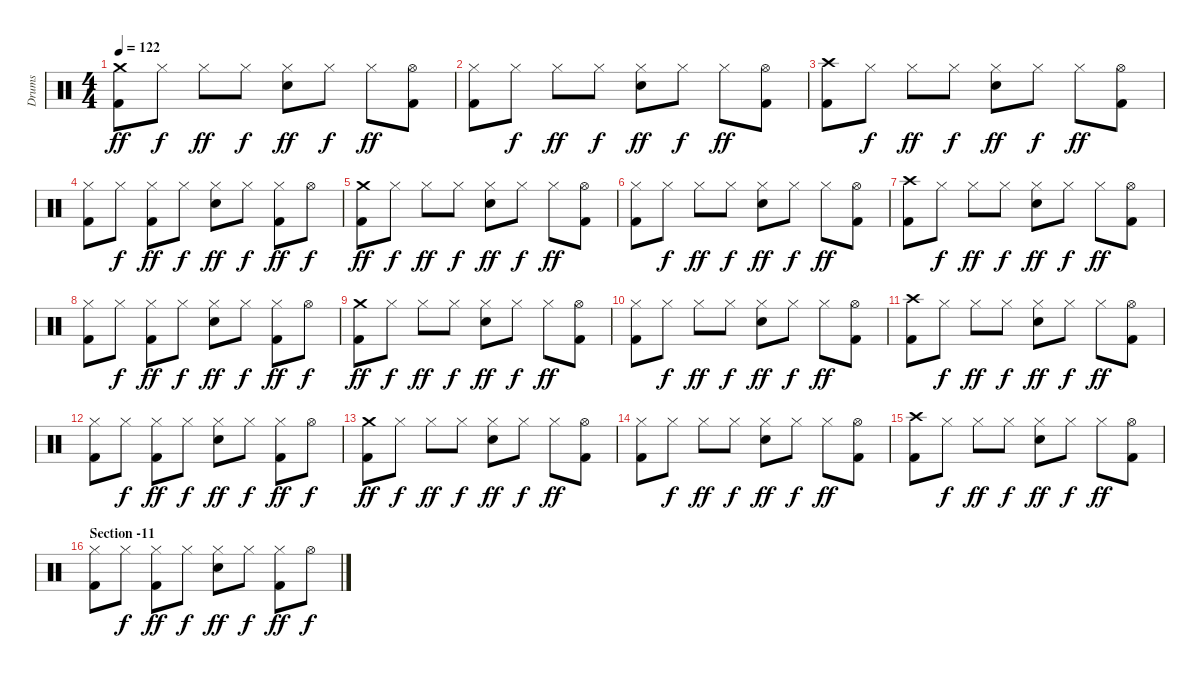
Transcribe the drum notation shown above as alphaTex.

\track ("Drums" "Drums") {instrument percussion}
\staff {score}
\articulation defaults
\ts (4 4)
\tempo 122
\clef neutral
\ks c
("Crash medium (hit)" "Kick (hit) 2").8{dy ff} "Hi-Hat (closed)".8{dy f} "Hi-Hat (closed)".8{dy ff} "Hi-Hat (closed)".8{dy f} ("Hi-Hat (closed)" "Snare (hit) 2").8{dy ff} "Hi-Hat (closed)".8{dy f} "Hi-Hat (closed)".8{dy ff} ("Hi-Hat (open)" "Kick (hit) 2").8 |
("Hi-Hat (closed)" "Kick (hit) 2").8 "Hi-Hat (closed)".8{dy f} "Hi-Hat (closed)".8{dy ff} "Hi-Hat (closed)".8{dy f} ("Hi-Hat (closed)" "Snare (hit) 2").8{dy ff} "Hi-Hat (closed)".8{dy f} "Hi-Hat (closed)".8{dy ff} ("Hi-Hat (open)" "Kick (hit) 2").8 |
("Crash high (hit)" "Kick (hit) 2").8 "Hi-Hat (closed)".8{dy f} "Hi-Hat (closed)".8{dy ff} "Hi-Hat (closed)".8{dy f} ("Hi-Hat (closed)" "Snare (hit) 2").8{dy ff} "Hi-Hat (closed)".8{dy f} "Hi-Hat (closed)".8{dy ff} ("Hi-Hat (open)" "Kick (hit) 2").8 |
("Hi-Hat (closed)" "Kick (hit) 2").8 "Hi-Hat (closed)".8{dy f} ("Hi-Hat (closed)" "Kick (hit) 2").8{dy ff} "Hi-Hat (closed)".8{dy f} ("Hi-Hat (closed)" "Snare (hit) 2").8{dy ff} "Hi-Hat (closed)".8{dy f} ("Hi-Hat (closed)" "Kick (hit) 2").8{dy ff} "Hi-Hat (open)".8{dy f} |
("Crash medium (hit)" "Kick (hit) 2").8{dy ff} "Hi-Hat (closed)".8{dy f} "Hi-Hat (closed)".8{dy ff} "Hi-Hat (closed)".8{dy f} ("Hi-Hat (closed)" "Snare (hit) 2").8{dy ff} "Hi-Hat (closed)".8{dy f} "Hi-Hat (closed)".8{dy ff} ("Hi-Hat (open)" "Kick (hit) 2").8 |
("Hi-Hat (closed)" "Kick (hit) 2").8 "Hi-Hat (closed)".8{dy f} "Hi-Hat (closed)".8{dy ff} "Hi-Hat (closed)".8{dy f} ("Hi-Hat (closed)" "Snare (hit) 2").8{dy ff} "Hi-Hat (closed)".8{dy f} "Hi-Hat (closed)".8{dy ff} ("Hi-Hat (open)" "Kick (hit) 2").8 |
("Crash high (hit)" "Kick (hit) 2").8 "Hi-Hat (closed)".8{dy f} "Hi-Hat (closed)".8{dy ff} "Hi-Hat (closed)".8{dy f} ("Hi-Hat (closed)" "Snare (hit) 2").8{dy ff} "Hi-Hat (closed)".8{dy f} "Hi-Hat (closed)".8{dy ff} ("Hi-Hat (open)" "Kick (hit) 2").8 |
("Hi-Hat (closed)" "Kick (hit) 2").8 "Hi-Hat (closed)".8{dy f} ("Hi-Hat (closed)" "Kick (hit) 2").8{dy ff} "Hi-Hat (closed)".8{dy f} ("Hi-Hat (closed)" "Snare (hit) 2").8{dy ff} "Hi-Hat (closed)".8{dy f} ("Hi-Hat (closed)" "Kick (hit) 2").8{dy ff} "Hi-Hat (open)".8{dy f} |
("Crash medium (hit)" "Kick (hit) 2").8{dy ff} "Hi-Hat (closed)".8{dy f} "Hi-Hat (closed)".8{dy ff} "Hi-Hat (closed)".8{dy f} ("Hi-Hat (closed)" "Snare (hit) 2").8{dy ff} "Hi-Hat (closed)".8{dy f} "Hi-Hat (closed)".8{dy ff} ("Hi-Hat (open)" "Kick (hit) 2").8 |
("Hi-Hat (closed)" "Kick (hit) 2").8 "Hi-Hat (closed)".8{dy f} "Hi-Hat (closed)".8{dy ff} "Hi-Hat (closed)".8{dy f} ("Hi-Hat (closed)" "Snare (hit) 2").8{dy ff} "Hi-Hat (closed)".8{dy f} "Hi-Hat (closed)".8{dy ff} ("Hi-Hat (open)" "Kick (hit) 2").8 |
("Crash high (hit)" "Kick (hit) 2").8 "Hi-Hat (closed)".8{dy f} "Hi-Hat (closed)".8{dy ff} "Hi-Hat (closed)".8{dy f} ("Hi-Hat (closed)" "Snare (hit) 2").8{dy ff} "Hi-Hat (closed)".8{dy f} "Hi-Hat (closed)".8{dy ff} ("Hi-Hat (open)" "Kick (hit) 2").8 |
("Hi-Hat (closed)" "Kick (hit) 2").8 "Hi-Hat (closed)".8{dy f} ("Hi-Hat (closed)" "Kick (hit) 2").8{dy ff} "Hi-Hat (closed)".8{dy f} ("Hi-Hat (closed)" "Snare (hit) 2").8{dy ff} "Hi-Hat (closed)".8{dy f} ("Hi-Hat (closed)" "Kick (hit) 2").8{dy ff} "Hi-Hat (open)".8{dy f} |
("Crash medium (hit)" "Kick (hit) 2").8{dy ff} "Hi-Hat (closed)".8{dy f} "Hi-Hat (closed)".8{dy ff} "Hi-Hat (closed)".8{dy f} ("Hi-Hat (closed)" "Snare (hit) 2").8{dy ff} "Hi-Hat (closed)".8{dy f} "Hi-Hat (closed)".8{dy ff} ("Hi-Hat (open)" "Kick (hit) 2").8 |
("Hi-Hat (closed)" "Kick (hit) 2").8 "Hi-Hat (closed)".8{dy f} "Hi-Hat (closed)".8{dy ff} "Hi-Hat (closed)".8{dy f} ("Hi-Hat (closed)" "Snare (hit) 2").8{dy ff} "Hi-Hat (closed)".8{dy f} "Hi-Hat (closed)".8{dy ff} ("Hi-Hat (open)" "Kick (hit) 2").8 |
("Crash high (hit)" "Kick (hit) 2").8 "Hi-Hat (closed)".8{dy f} "Hi-Hat (closed)".8{dy ff} "Hi-Hat (closed)".8{dy f} ("Hi-Hat (closed)" "Snare (hit) 2").8{dy ff} "Hi-Hat (closed)".8{dy f} "Hi-Hat (closed)".8{dy ff} ("Hi-Hat (open)" "Kick (hit) 2").8 |
\section ("" "Section -11")
("Hi-Hat (closed)" "Kick (hit) 2").8 "Hi-Hat (closed)".8{dy f} ("Hi-Hat (closed)" "Kick (hit) 2").8{dy ff} "Hi-Hat (closed)".8{dy f} ("Hi-Hat (closed)" "Snare (hit) 2").8{dy ff} "Hi-Hat (closed)".8{dy f} ("Hi-Hat (closed)" "Kick (hit) 2").8{dy ff} "Hi-Hat (open)".8{dy f}
